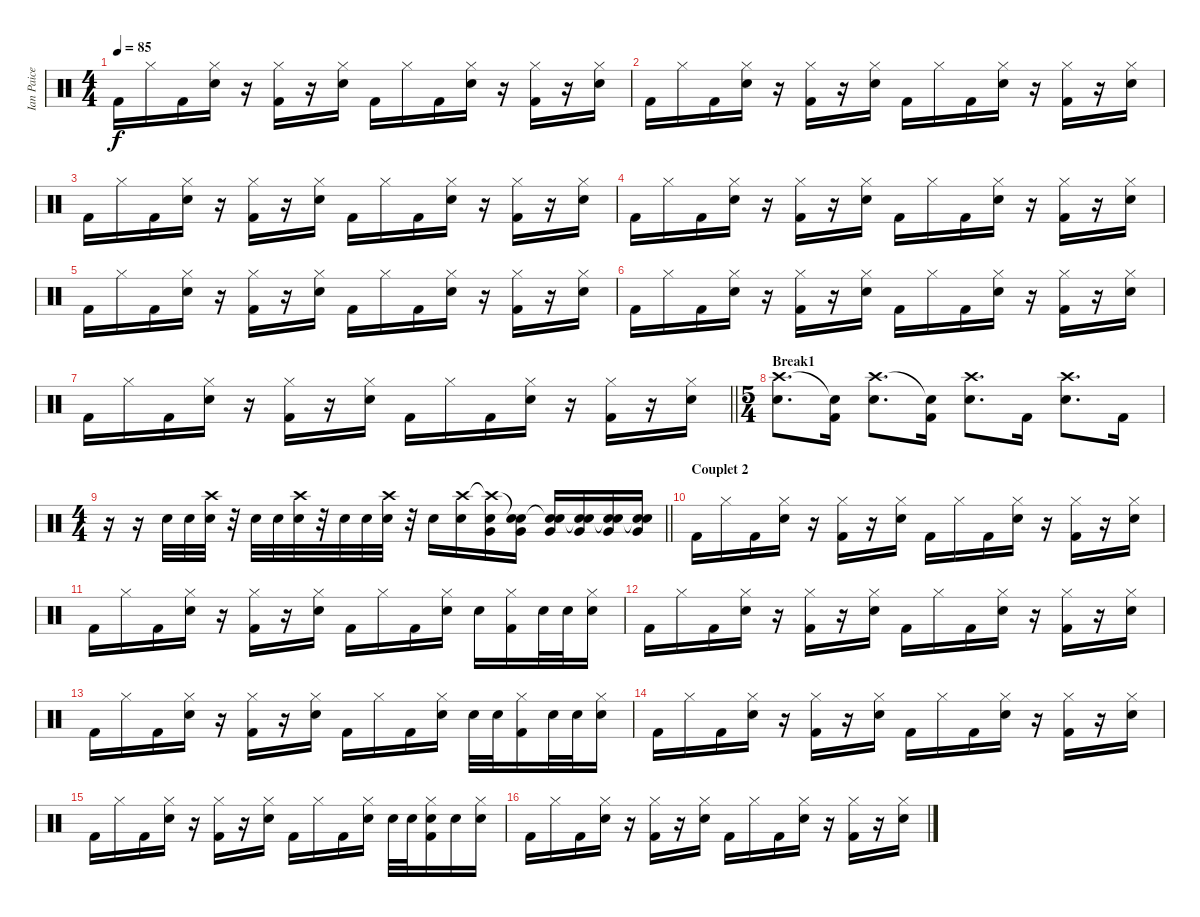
\track ("Ian Paice" "Ian Paice") {instrument percussion}
\staff {score}
\articulation defaults
\ts (4 4)
\tempo 85
\clef neutral
\ks c "Kick (hit) 2".16{dy f} "Hi-Hat (closed)".16 "Kick (hit) 2".16
("Hi-Hat (closed)" "Snare (hit) 2").16 r.16 ("Hi-Hat (closed)" "Kick (hit) 2").16 r.16 ("Hi-Hat (closed)" "Snare (hit) 2").16 "Kick (hit) 2".16 "Hi-Hat (closed)".16 "Kick (hit) 2".16 ("Hi-Hat (closed)" "Snare (hit) 2").16 r.16 ("Hi-Hat (closed)" "Kick (hit) 2").16 r.16 ("Hi-Hat (closed)" "Snare (hit) 2").16 |
"Kick (hit) 2".16 "Hi-Hat (closed)".16 "Kick (hit) 2".16 ("Hi-Hat (closed)" "Snare (hit) 2").16 r.16 ("Hi-Hat (closed)" "Kick (hit) 2").16 r.16 ("Hi-Hat (closed)" "Snare (hit) 2").16 "Kick (hit) 2".16 "Hi-Hat (closed)".16 "Kick (hit) 2".16 ("Hi-Hat (closed)" "Snare (hit) 2").16 r.16 ("Hi-Hat (closed)" "Kick (hit) 2").16 r.16 ("Hi-Hat (closed)" "Snare (hit) 2").16 |
"Kick (hit) 2".16 "Hi-Hat (closed)".16 "Kick (hit) 2".16 ("Hi-Hat (closed)" "Snare (hit) 2").16 r.16 ("Hi-Hat (closed)" "Kick (hit) 2").16 r.16 ("Hi-Hat (closed)" "Snare (hit) 2").16 "Kick (hit) 2".16 "Hi-Hat (closed)".16 "Kick (hit) 2".16 ("Hi-Hat (closed)" "Snare (hit) 2").16 r.16 ("Hi-Hat (closed)" "Kick (hit) 2").16 r.16 ("Hi-Hat (closed)" "Snare (hit) 2").16 |
"Kick (hit) 2".16 "Hi-Hat (closed)".16 "Kick (hit) 2".16 ("Hi-Hat (closed)" "Snare (hit) 2").16 r.16 ("Hi-Hat (closed)" "Kick (hit) 2").16 r.16 ("Hi-Hat (closed)" "Snare (hit) 2").16 "Kick (hit) 2".16 "Hi-Hat (closed)".16 "Kick (hit) 2".16 ("Hi-Hat (closed)" "Snare (hit) 2").16 r.16 ("Hi-Hat (closed)" "Kick (hit) 2").16 r.16 ("Hi-Hat (closed)" "Snare (hit) 2").16 |
"Kick (hit) 2".16 "Hi-Hat (closed)".16 "Kick (hit) 2".16 ("Hi-Hat (closed)" "Snare (hit) 2").16 r.16 ("Hi-Hat (closed)" "Kick (hit) 2").16 r.16 ("Hi-Hat (closed)" "Snare (hit) 2").16 "Kick (hit) 2".16 "Hi-Hat (closed)".16 "Kick (hit) 2".16 ("Hi-Hat (closed)" "Snare (hit) 2").16 r.16 ("Hi-Hat (closed)" "Kick (hit) 2").16 r.16 ("Hi-Hat (closed)" "Snare (hit) 2").16 |
"Kick (hit) 2".16 "Hi-Hat (closed)".16 "Kick (hit) 2".16 ("Hi-Hat (closed)" "Snare (hit) 2").16 r.16 ("Hi-Hat (closed)" "Kick (hit) 2").16 r.16 ("Hi-Hat (closed)" "Snare (hit) 2").16 "Kick (hit) 2".16 "Hi-Hat (closed)".16 "Kick (hit) 2".16 ("Hi-Hat (closed)" "Snare (hit) 2").16 r.16 ("Hi-Hat (closed)" "Kick (hit) 2").16 r.16 ("Hi-Hat (closed)" "Snare (hit) 2").16 |
\barLineRight lightlight "Kick (hit) 2".16 "Hi-Hat (closed)".16 "Kick (hit) 2".16
("Hi-Hat (closed)" "Snare (hit) 2").16 r.16 ("Hi-Hat (closed)" "Kick (hit) 2").16 r.16 ("Hi-Hat (closed)" "Snare (hit) 2").16 "Kick (hit) 2".16 "Hi-Hat (closed)".16 "Kick (hit) 2".16 ("Hi-Hat (closed)" "Snare (hit) 2").16 r.16 ("Hi-Hat (closed)" "Kick (hit) 2").16 r.16 ("Hi-Hat (closed)" "Snare (hit) 2").16 |
\ts (5 4)
\section ("" "Break1")
("Crash high (hit)" "Snare (hit) 2").8{d} ("Snare (hit)"{t} "Kick (hit) 2").16 ("Crash high (hit)" "Snare (hit) 2").8{d} ("Snare (hit)"{t} "Kick (hit) 2").16 ("Crash high (hit)" "Snare (hit) 2").8{d} "Kick (hit) 2".16 ("Crash high (hit)" "Snare (hit) 2").8{d} "Kick (hit) 2".16 |
\ts (4 4)
\barLineRight lightlight
r.16 r.16 "Snare (hit) 2".32 "Snare (hit) 2".32 ("Crash high (hit)" "Snare (hit) 2").32 r.32 "Snare (hit) 2".32 "Snare (hit) 2".32 ("Crash high (hit)" "Snare (hit) 2").32 r.32 "Snare (hit) 2".32 "Snare (hit) 2".32 ("Crash high (hit)" "Snare (hit) 2").32 r.32 "Snare (hit) 2".16 ("Crash high (hit)" "Snare (hit) 2").16 ("Crash high (hit)"{t} "Snare (hit) 2" "Very Low Tom (hit)").16 ("Snare (hit)"{t} "Snare (hit) 2" "Very Low Tom (hit)").16 ("Snare (hit)"{t} "Snare (hit) 2" "Very Low Tom (hit)").16 ("Snare (hit)"{t} "Snare (hit) 2" "Very Low Tom (hit)").16 ("Snare (hit)"{t} "Snare (hit) 2" "Very Low Tom (hit)").16 ("Snare (hit)"{t} "Snare (hit) 2" "Very Low Tom (hit)").16 |
\section ("" "Couplet 2")
"Kick (hit) 2".16 "Hi-Hat (closed)".16 "Kick (hit) 2".16 ("Hi-Hat (closed)" "Snare (hit) 2").16 r.16 ("Hi-Hat (closed)" "Kick (hit) 2").16 r.16 ("Hi-Hat (closed)" "Snare (hit) 2").16 "Kick (hit) 2".16 "Hi-Hat (closed)".16 "Kick (hit) 2".16 ("Hi-Hat (closed)" "Snare (hit) 2").16 r.16 ("Hi-Hat (closed)" "Kick (hit) 2").16 r.16 ("Hi-Hat (closed)" "Snare (hit) 2").16 |
"Kick (hit) 2".16 "Hi-Hat (closed)".16 "Kick (hit) 2".16 ("Hi-Hat (closed)" "Snare (hit) 2").16 r.16 ("Hi-Hat (closed)" "Kick (hit) 2").16 r.16 ("Hi-Hat (closed)" "Snare (hit) 2").16 "Kick (hit) 2".16 "Hi-Hat (closed)".16 "Kick (hit) 2".16 ("Hi-Hat (closed)" "Snare (hit) 2").16 "Snare (hit) 2".16 ("Hi-Hat (closed)" "Kick (hit) 2").16 "Snare (hit) 2".32 "Snare (hit) 2".32 ("Hi-Hat (closed)" "Snare (hit) 2").16 |
"Kick (hit) 2".16 "Hi-Hat (closed)".16 "Kick (hit) 2".16 ("Hi-Hat (closed)" "Snare (hit) 2").16 r.16 ("Hi-Hat (closed)" "Kick (hit) 2").16 r.16 ("Hi-Hat (closed)" "Snare (hit) 2").16 "Kick (hit) 2".16 "Hi-Hat (closed)".16 "Kick (hit) 2".16 ("Hi-Hat (closed)" "Snare (hit) 2").16 r.16 ("Hi-Hat (closed)" "Kick (hit) 2").16 r.16 ("Hi-Hat (closed)" "Snare (hit) 2").16 |
"Kick (hit) 2".16 "Hi-Hat (closed)".16 "Kick (hit) 2".16 ("Hi-Hat (closed)" "Snare (hit) 2").16 r.16 ("Hi-Hat (closed)" "Kick (hit) 2").16 r.16 ("Hi-Hat (closed)" "Snare (hit) 2").16 "Kick (hit) 2".16 "Hi-Hat (closed)".16 "Kick (hit) 2".16 ("Hi-Hat (closed)" "Snare (hit) 2").16 "Snare (hit) 2".32 "Snare (hit) 2".32 ("Hi-Hat (closed)" "Kick (hit) 2").16 "Snare (hit) 2".32 "Snare (hit) 2".32 ("Hi-Hat (closed)" "Snare (hit) 2").16 |
"Kick (hit) 2".16 "Hi-Hat (closed)".16 "Kick (hit) 2".16 ("Hi-Hat (closed)" "Snare (hit) 2").16 r.16 ("Hi-Hat (closed)" "Kick (hit) 2").16 r.16 ("Hi-Hat (closed)" "Snare (hit) 2").16 "Kick (hit) 2".16 "Hi-Hat (closed)".16 "Kick (hit) 2".16 ("Hi-Hat (closed)" "Snare (hit) 2").16 r.16 ("Hi-Hat (closed)" "Kick (hit) 2").16 r.16 ("Hi-Hat (closed)" "Snare (hit) 2").16 |
"Kick (hit) 2".16 "Hi-Hat (closed)".16 "Kick (hit) 2".16 ("Hi-Hat (closed)" "Snare (hit) 2").16 r.16 ("Hi-Hat (closed)" "Kick (hit) 2").16 r.16 ("Hi-Hat (closed)" "Snare (hit) 2").16 "Kick (hit) 2".16 "Hi-Hat (closed)".16 "Kick (hit) 2".16 ("Hi-Hat (closed)" "Snare (hit) 2").16 "Snare (hit) 2".32 "Snare (hit) 2".32 ("Hi-Hat (closed)" "Snare (hit) 2" "Kick (hit) 2").16 "Snare (hit) 2".16 ("Hi-Hat (closed)" "Snare (hit) 2").16 |
"Kick (hit) 2".16 "Hi-Hat (closed)".16 "Kick (hit) 2".16 ("Hi-Hat (closed)" "Snare (hit) 2").16 r.16 ("Hi-Hat (closed)" "Kick (hit) 2").16 r.16 ("Hi-Hat (closed)" "Snare (hit) 2").16 "Kick (hit) 2".16 "Hi-Hat (closed)".16 "Kick (hit) 2".16 ("Hi-Hat (closed)" "Snare (hit) 2").16 r.16 ("Hi-Hat (closed)" "Kick (hit) 2").16 r.16 ("Hi-Hat (closed)" "Snare (hit) 2").16
